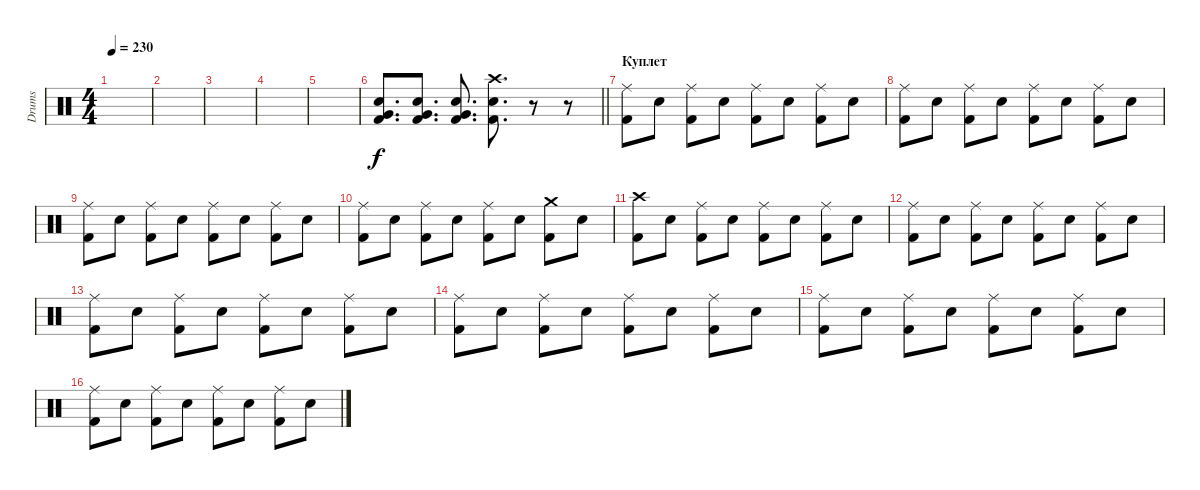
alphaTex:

\track ("Drums" "Drums") {instrument percussion}
\staff {score}
\articulation defaults
\ts (4 4)
\tempo 230
\clef neutral
\ks c
|
|
|
|
|
\barLineRight lightlight
("Very Low Tom (hit)" "Electric Snare (hit)" "Kick (hit) 2").8{d} ("Very Low Tom (hit)" "Electric Snare (hit)" "Kick (hit) 2").8{d} ("Very Low Tom (hit)" "Electric Snare (hit)" "Kick (hit) 2").8{d} ("Crash high (hit)" "Electric Snare (hit)" "Kick (hit) 2").8{d} r.8 r.8 |
\section ("" "Куплет")
("Ride (middle)" "Kick (hit) 2").8{dy f} "Electric Snare (hit)".8 ("Ride (middle)" "Kick (hit) 2").8 "Electric Snare (hit)".8 ("Ride (middle)" "Kick (hit) 2").8 "Electric Snare (hit)".8 ("Ride (middle)" "Kick (hit) 2").8 "Electric Snare (hit)".8 |
("Ride (middle)" "Kick (hit) 2").8 "Electric Snare (hit)".8 ("Ride (middle)" "Kick (hit) 2").8 "Electric Snare (hit)".8 ("Ride (middle)" "Kick (hit) 2").8 "Electric Snare (hit)".8 ("Ride (middle)" "Kick (hit) 2").8 "Electric Snare (hit)".8 |
("Ride (middle)" "Kick (hit) 2").8 "Electric Snare (hit)".8 ("Ride (middle)" "Kick (hit) 2").8 "Electric Snare (hit)".8 ("Ride (middle)" "Kick (hit) 2").8 "Electric Snare (hit)".8 ("Ride (middle)" "Kick (hit) 2").8 "Electric Snare (hit)".8 |
("Ride (middle)" "Kick (hit) 2").8 "Electric Snare (hit)".8 ("Ride (middle)" "Kick (hit) 2").8 "Electric Snare (hit)".8 ("Ride (middle)" "Kick (hit) 2").8 "Electric Snare (hit)".8 ("Crash medium (hit)" "Kick (hit) 2").8 "Electric Snare (hit)".8 |
("Crash high (hit)" "Kick (hit) 2").8 "Electric Snare (hit)".8 ("Ride (middle)" "Kick (hit) 2").8 "Electric Snare (hit)".8 ("Ride (middle)" "Kick (hit) 2").8 "Electric Snare (hit)".8 ("Ride (middle)" "Kick (hit) 2").8 "Electric Snare (hit)".8 |
("Ride (middle)" "Kick (hit) 2").8 "Electric Snare (hit)".8 ("Ride (middle)" "Kick (hit) 2").8 "Electric Snare (hit)".8 ("Ride (middle)" "Kick (hit) 2").8 "Electric Snare (hit)".8 ("Ride (middle)" "Kick (hit) 2").8 "Electric Snare (hit)".8 |
("Ride (middle)" "Kick (hit) 2").8 "Electric Snare (hit)".8 ("Ride (middle)" "Kick (hit) 2").8 "Electric Snare (hit)".8 ("Ride (middle)" "Kick (hit) 2").8 "Electric Snare (hit)".8 ("Ride (middle)" "Kick (hit) 2").8 "Electric Snare (hit)".8 |
("Ride (middle)" "Kick (hit) 2").8 "Electric Snare (hit)".8 ("Ride (middle)" "Kick (hit) 2").8 "Electric Snare (hit)".8 ("Ride (middle)" "Kick (hit) 2").8 "Electric Snare (hit)".8 ("Ride (middle)" "Kick (hit) 2").8 "Electric Snare (hit)".8 |
("Ride (middle)" "Kick (hit) 2").8 "Electric Snare (hit)".8 ("Ride (middle)" "Kick (hit) 2").8 "Electric Snare (hit)".8 ("Ride (middle)" "Kick (hit) 2").8 "Electric Snare (hit)".8 ("Ride (middle)" "Kick (hit) 2").8 "Electric Snare (hit)".8 |
("Ride (middle)" "Kick (hit) 2").8 "Electric Snare (hit)".8 ("Ride (middle)" "Kick (hit) 2").8 "Electric Snare (hit)".8 ("Ride (middle)" "Kick (hit) 2").8 "Electric Snare (hit)".8 ("Ride (middle)" "Kick (hit) 2").8 "Electric Snare (hit)".8
